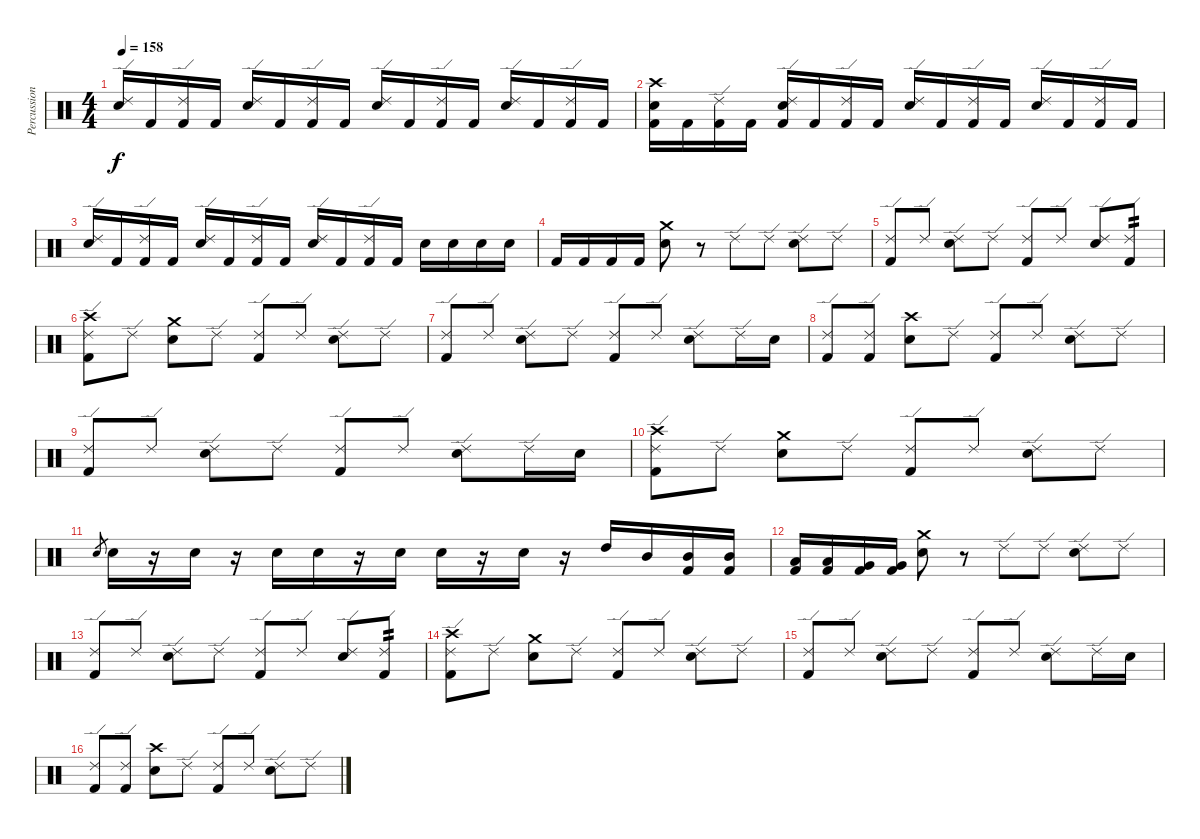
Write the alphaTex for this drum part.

\track ("Percussion" "Percussion") {instrument percussion}
\staff {score}
\articulation defaults
\ts (4 4)
\tempo 158
\clef neutral
\ks c
("Ride (edge) 2" "Electric Snare (hit)").16{dy f} "Kick (hit) 2".16 ("Ride (edge) 2" "Kick (hit) 2").16 "Kick (hit) 2".16 ("Ride (edge) 2" "Electric Snare (hit)").16 "Kick (hit) 2".16 ("Ride (edge) 2" "Kick (hit) 2").16 "Kick (hit) 2".16 ("Ride (edge) 2" "Electric Snare (hit)").16 "Kick (hit) 2".16 ("Ride (edge) 2" "Kick (hit) 2").16 "Kick (hit) 2".16 ("Ride (edge) 2" "Electric Snare (hit)").16 "Kick (hit) 2".16 ("Ride (edge) 2" "Kick (hit) 2").16 "Kick (hit) 2".16 |
("Crash high (hit)" "Electric Snare (hit)" "Kick (hit) 2").16 "Kick (hit) 2".16 ("Ride (edge) 2" "Kick (hit) 2").16 "Kick (hit) 2".16 ("Ride (edge) 2" "Electric Snare (hit)" "Kick (hit) 2").16 "Kick (hit) 2".16 ("Ride (edge) 2" "Kick (hit) 2").16 "Kick (hit) 2".16 ("Ride (edge) 2" "Electric Snare (hit)").16 "Kick (hit) 2".16 ("Ride (edge) 2" "Kick (hit) 2").16 "Kick (hit) 2".16 ("Ride (edge) 2" "Electric Snare (hit)").16 "Kick (hit) 2".16 ("Ride (edge) 2" "Kick (hit) 2").16 "Kick (hit) 2".16 |
("Ride (edge) 2" "Electric Snare (hit)").16 "Kick (hit) 2".16 ("Ride (edge) 2" "Kick (hit) 2").16 "Kick (hit) 2".16 ("Ride (edge) 2" "Electric Snare (hit)").16 "Kick (hit) 2".16 ("Ride (edge) 2" "Kick (hit) 2").16 "Kick (hit) 2".16 ("Ride (edge) 2" "Electric Snare (hit)").16 "Kick (hit) 2".16 ("Ride (edge) 2" "Kick (hit) 2").16 "Kick (hit) 2".16 "Electric Snare (hit)".16 "Electric Snare (hit)".16 "Electric Snare (hit)".16 "Electric Snare (hit)".16 |
"Kick (hit) 2".16 "Kick (hit) 2".16 "Kick (hit) 2".16 "Kick (hit) 2".16 ("Crash medium (hit)" "Electric Snare (hit)").8 r.8 "Ride (edge) 2".8 "Ride (edge) 2".8 ("Ride (edge) 2" "Electric Snare (hit)").8 "Ride (edge) 2".8 |
("Ride (edge) 2" "Kick (hit) 2").8 "Ride (edge) 2".8 ("Ride (edge) 2" "Electric Snare (hit)").8 "Ride (edge) 2".8 ("Ride (edge) 2" "Kick (hit) 2").8 "Ride (edge) 2".8 ("Ride (edge) 2" "Electric Snare (hit)").8 ("Ride (edge) 2" "Kick (hit) 2").8{tp 2} |
("Ride (edge) 2" "Crash high (hit)" "Kick (hit) 2").8 "Ride (edge) 2".8 ("Crash medium (hit)" "Electric Snare (hit)").8 "Ride (edge) 2".8 ("Ride (edge) 2" "Kick (hit) 2").8 "Ride (edge) 2".8 ("Ride (edge) 2" "Electric Snare (hit)").8 "Ride (edge) 2".8 |
("Ride (edge) 2" "Kick (hit) 2").8 "Ride (edge) 2".8 ("Ride (edge) 2" "Electric Snare (hit)").8 "Ride (edge) 2".8 ("Ride (edge) 2" "Kick (hit) 2").8 "Ride (edge) 2".8 ("Ride (edge) 2" "Electric Snare (hit)").8 "Ride (edge) 2".16 "Electric Snare (hit)".16 |
("Ride (edge) 2" "Kick (hit) 2").8 ("Ride (edge) 2" "Kick (hit) 2").8 ("Crash high (hit)" "Electric Snare (hit)").8 "Ride (edge) 2".8 ("Ride (edge) 2" "Kick (hit) 2").8 "Ride (edge) 2".8 ("Ride (edge) 2" "Electric Snare (hit)").8 "Ride (edge) 2".8 |
("Ride (edge) 2" "Kick (hit) 2").8 "Ride (edge) 2".8 ("Ride (edge) 2" "Electric Snare (hit)").8 "Ride (edge) 2".8 ("Ride (edge) 2" "Kick (hit) 2").8 "Ride (edge) 2".8 ("Ride (edge) 2" "Electric Snare (hit)").8 "Ride (edge) 2".16 "Electric Snare (hit)".16 |
("Ride (edge) 2" "Crash high (hit)" "Kick (hit) 2").8 "Ride (edge) 2".8 ("Crash medium (hit)" "Electric Snare (hit)").8 "Ride (edge) 2".8 ("Ride (edge) 2" "Kick (hit) 2").8 "Ride (edge) 2".8 ("Ride (edge) 2" "Electric Snare (hit)").8 "Ride (edge) 2".8 |
"Electric Snare (hit)".8{gr} "Electric Snare (hit)".16 r.16 "Electric Snare (hit)".16 r.16 "Electric Snare (hit)".16 "Electric Snare (hit)".16 r.16 "Electric Snare (hit)".16 "Electric Snare (hit)".16 r.16 "Electric Snare (hit)".16 r.16 "High Tom (hit)".16 "Mid Tom (hit)".16 ("Mid Tom (hit)" "Kick (hit) 2").16 ("Mid Tom (hit)" "Kick (hit) 2").16 |
("Low Tom (hit)" "Kick (hit) 2").16 ("Low Tom (hit)" "Kick (hit) 2").16 ("Very Low Tom (hit)" "Kick (hit) 2").16 ("Very Low Tom (hit)" "Kick (hit) 2").16 ("Crash medium (hit)" "Electric Snare (hit)").8 r.8 "Ride (edge) 2".8 "Ride (edge) 2".8 ("Ride (edge) 2" "Electric Snare (hit)").8 "Ride (edge) 2".8 |
("Ride (edge) 2" "Kick (hit) 2").8 "Ride (edge) 2".8 ("Ride (edge) 2" "Electric Snare (hit)").8 "Ride (edge) 2".8 ("Ride (edge) 2" "Kick (hit) 2").8 "Ride (edge) 2".8 ("Ride (edge) 2" "Electric Snare (hit)").8 ("Ride (edge) 2" "Kick (hit) 2").8{tp 2} |
("Ride (edge) 2" "Crash high (hit)" "Kick (hit) 2").8 "Ride (edge) 2".8 ("Crash medium (hit)" "Electric Snare (hit)").8 "Ride (edge) 2".8 ("Ride (edge) 2" "Kick (hit) 2").8 "Ride (edge) 2".8 ("Ride (edge) 2" "Electric Snare (hit)").8 "Ride (edge) 2".8 |
("Ride (edge) 2" "Kick (hit) 2").8 "Ride (edge) 2".8 ("Ride (edge) 2" "Electric Snare (hit)").8 "Ride (edge) 2".8 ("Ride (edge) 2" "Kick (hit) 2").8 "Ride (edge) 2".8 ("Ride (edge) 2" "Electric Snare (hit)").8 "Ride (edge) 2".16 "Electric Snare (hit)".16 |
("Ride (edge) 2" "Kick (hit) 2").8 ("Ride (edge) 2" "Kick (hit) 2").8 ("Crash high (hit)" "Electric Snare (hit)").8 "Ride (edge) 2".8 ("Ride (edge) 2" "Kick (hit) 2").8 "Ride (edge) 2".8 ("Ride (edge) 2" "Electric Snare (hit)").8 "Ride (edge) 2".8
